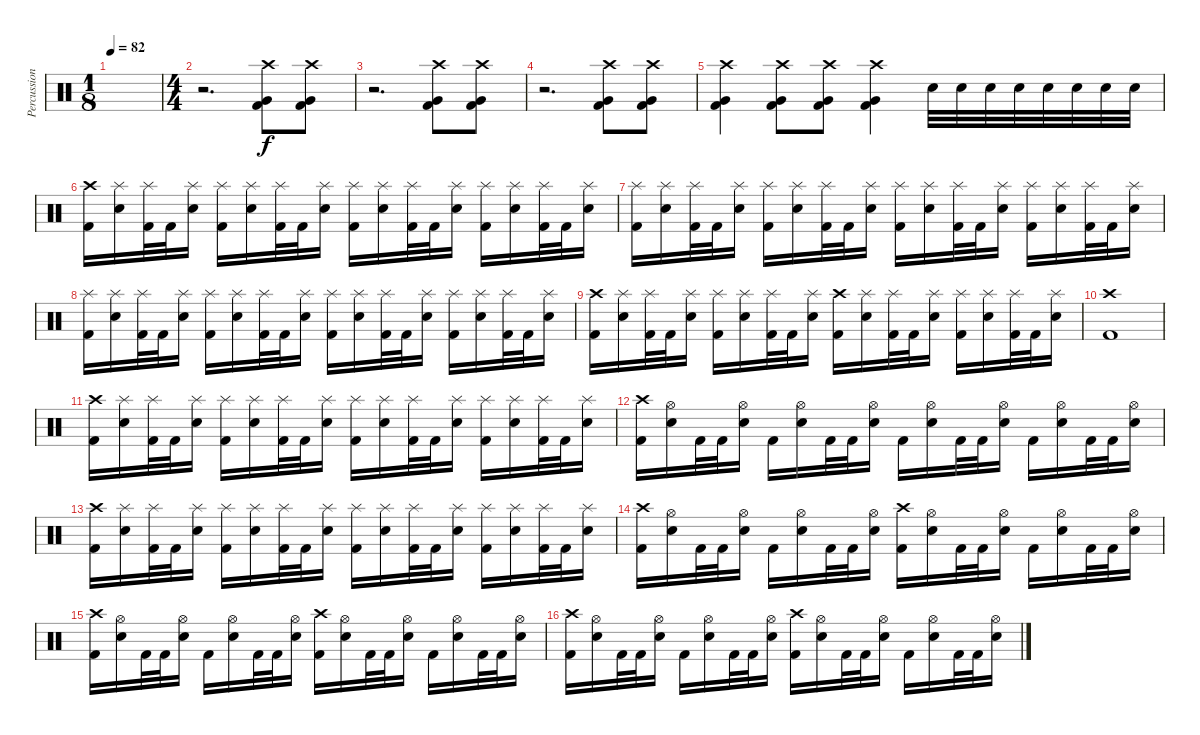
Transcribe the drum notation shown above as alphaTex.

\track ("Percussion" "Percussion") {instrument percussion}
\staff {score}
\articulation defaults
\ts (1 8)
\tempo 82
\clef neutral
\ks c
|
\ts (4 4)
\section ("" "")
r.2{d} ("Crash high (hit)" "Very Low Tom (hit)" "Kick (hit) 2").8 ("Crash high (hit)" "Very Low Tom (hit)" "Kick (hit) 2").8 |
r.2{d} ("Crash high (hit)" "Very Low Tom (hit)" "Kick (hit) 2").8 ("Crash high (hit)" "Very Low Tom (hit)" "Kick (hit) 2").8 |
r.2{d} ("Crash high (hit)" "Very Low Tom (hit)" "Kick (hit) 2").8 ("Crash high (hit)" "Very Low Tom (hit)" "Kick (hit) 2").8 |
("Crash high (hit)" "Very Low Tom (hit)" "Kick (hit) 2").4 ("Crash high (hit)" "Very Low Tom (hit)" "Kick (hit) 2").8 ("Crash high (hit)" "Very Low Tom (hit)" "Kick (hit) 2").8 ("Crash high (hit)" "Very Low Tom (hit)" "Kick (hit) 2").4 "Electric Snare (hit)".32 "Electric Snare (hit)".32 "Electric Snare (hit)".32 "Electric Snare (hit)".32 "Electric Snare (hit)".32 "Electric Snare (hit)".32 "Electric Snare (hit)".32 "Electric Snare (hit)".32 |
\section ("" "")
("Crash high (hit)" "Kick (hit) 2").16 ("Splash (hit)" "Electric Snare (hit)").16 ("Splash (hit)" "Kick (hit) 2").32 "Kick (hit) 2".32 ("Splash (hit)" "Electric Snare (hit)").16 ("Splash (hit)" "Kick (hit) 2").16 ("Splash (hit)" "Electric Snare (hit)").16 ("Splash (hit)" "Kick (hit) 2").32 "Kick (hit) 2".32 ("Splash (hit)" "Electric Snare (hit)").16 ("Splash (hit)" "Kick (hit) 2").16 ("Splash (hit)" "Electric Snare (hit)").16 ("Splash (hit)" "Kick (hit) 2").32 "Kick (hit) 2".32 ("Splash (hit)" "Electric Snare (hit)").16 ("Splash (hit)" "Kick (hit) 2").16 ("Splash (hit)" "Electric Snare (hit)").16 ("Splash (hit)" "Kick (hit) 2").32 "Kick (hit) 2".32 ("Splash (hit)" "Electric Snare (hit)").16 |
("Splash (hit)" "Kick (hit) 2").16 ("Splash (hit)" "Electric Snare (hit)").16 ("Splash (hit)" "Kick (hit) 2").32 "Kick (hit) 2".32 ("Splash (hit)" "Electric Snare (hit)").16 ("Splash (hit)" "Kick (hit) 2").16 ("Splash (hit)" "Electric Snare (hit)").16 ("Splash (hit)" "Kick (hit) 2").32 "Kick (hit) 2".32 ("Splash (hit)" "Electric Snare (hit)").16 ("Splash (hit)" "Kick (hit) 2").16 ("Splash (hit)" "Electric Snare (hit)").16 ("Splash (hit)" "Kick (hit) 2").32 "Kick (hit) 2".32 ("Splash (hit)" "Electric Snare (hit)").16 ("Splash (hit)" "Kick (hit) 2").16 ("Splash (hit)" "Electric Snare (hit)").16 ("Splash (hit)" "Kick (hit) 2").32 "Kick (hit) 2".32 ("Splash (hit)" "Electric Snare (hit)").16 |
("Splash (hit)" "Kick (hit) 2").16 ("Splash (hit)" "Electric Snare (hit)").16 ("Splash (hit)" "Kick (hit) 2").32 "Kick (hit) 2".32 ("Splash (hit)" "Electric Snare (hit)").16 ("Splash (hit)" "Kick (hit) 2").16 ("Splash (hit)" "Electric Snare (hit)").16 ("Splash (hit)" "Kick (hit) 2").32 "Kick (hit) 2".32 ("Splash (hit)" "Electric Snare (hit)").16 ("Splash (hit)" "Kick (hit) 2").16 ("Splash (hit)" "Electric Snare (hit)").16 ("Splash (hit)" "Kick (hit) 2").32 "Kick (hit) 2".32 ("Splash (hit)" "Electric Snare (hit)").16 ("Splash (hit)" "Kick (hit) 2").16 ("Splash (hit)" "Electric Snare (hit)").16 ("Splash (hit)" "Kick (hit) 2").32 "Kick (hit) 2".32 ("Splash (hit)" "Electric Snare (hit)").16 |
("Crash high (hit)" "Kick (hit) 2").16 ("Splash (hit)" "Electric Snare (hit)").16 ("Splash (hit)" "Kick (hit) 2").32 "Kick (hit) 2".32 ("Splash (hit)" "Electric Snare (hit)").16 ("Splash (hit)" "Kick (hit) 2").16 ("Splash (hit)" "Electric Snare (hit)").16 ("Splash (hit)" "Kick (hit) 2").32 "Kick (hit) 2".32 ("Splash (hit)" "Electric Snare (hit)").16 ("Crash high (hit)" "Kick (hit) 2").16 ("Splash (hit)" "Electric Snare (hit)").16 ("Splash (hit)" "Kick (hit) 2").32 "Kick (hit) 2".32 ("Splash (hit)" "Electric Snare (hit)").16 ("Splash (hit)" "Kick (hit) 2").16 ("Splash (hit)" "Electric Snare (hit)").16 ("Splash (hit)" "Kick (hit) 2").32 "Kick (hit) 2".32 ("Splash (hit)" "Electric Snare (hit)").16 |
\section ("" "")
("Crash high (hit)" "Kick (hit) 2").1 |
("Crash high (hit)" "Kick (hit) 2").16 ("Splash (hit)" "Electric Snare (hit)").16 ("Splash (hit)" "Kick (hit) 2").32 "Kick (hit) 2".32 ("Splash (hit)" "Electric Snare (hit)").16 ("Splash (hit)" "Kick (hit) 2").16 ("Splash (hit)" "Electric Snare (hit)").16 ("Splash (hit)" "Kick (hit) 2").32 "Kick (hit) 2".32 ("Splash (hit)" "Electric Snare (hit)").16 ("Splash (hit)" "Kick (hit) 2").16 ("Splash (hit)" "Electric Snare (hit)").16 ("Splash (hit)" "Kick (hit) 2").32 "Kick (hit) 2".32 ("Splash (hit)" "Electric Snare (hit)").16 ("Splash (hit)" "Kick (hit) 2").16 ("Splash (hit)" "Electric Snare (hit)").16 ("Splash (hit)" "Kick (hit) 2").32 "Kick (hit) 2".32 ("Splash (hit)" "Electric Snare (hit)").16 |
("Crash high (hit)" "Kick (hit) 2").16 ("Hi-Hat (open)" "Electric Snare (hit)").16 "Kick (hit) 2".32 "Kick (hit) 2".32 ("Hi-Hat (open)" "Electric Snare (hit)").16 "Kick (hit) 2".16 ("Hi-Hat (open)" "Electric Snare (hit)").16 "Kick (hit) 2".32 "Kick (hit) 2".32 ("Hi-Hat (open)" "Electric Snare (hit)").16 "Kick (hit) 2".16 ("Hi-Hat (open)" "Electric Snare (hit)").16 "Kick (hit) 2".32 "Kick (hit) 2".32 ("Hi-Hat (open)" "Electric Snare (hit)").16 "Kick (hit) 2".16 ("Hi-Hat (open)" "Electric Snare (hit)").16 "Kick (hit) 2".32 "Kick (hit) 2".32 ("Hi-Hat (open)" "Electric Snare (hit)").16 |
("Crash high (hit)" "Kick (hit) 2").16 ("Splash (hit)" "Electric Snare (hit)").16 ("Splash (hit)" "Kick (hit) 2").32 "Kick (hit) 2".32 ("Splash (hit)" "Electric Snare (hit)").16 ("Splash (hit)" "Kick (hit) 2").16 ("Splash (hit)" "Electric Snare (hit)").16 ("Splash (hit)" "Kick (hit) 2").32 "Kick (hit) 2".32 ("Splash (hit)" "Electric Snare (hit)").16 ("Splash (hit)" "Kick (hit) 2").16 ("Splash (hit)" "Electric Snare (hit)").16 ("Splash (hit)" "Kick (hit) 2").32 "Kick (hit) 2".32 ("Splash (hit)" "Electric Snare (hit)").16 ("Splash (hit)" "Kick (hit) 2").16 ("Splash (hit)" "Electric Snare (hit)").16 ("Splash (hit)" "Kick (hit) 2").32 "Kick (hit) 2".32 ("Splash (hit)" "Electric Snare (hit)").16 |
\section ("" "")
("Crash high (hit)" "Kick (hit) 2").16 ("Hi-Hat (open)" "Electric Snare (hit)").16 "Kick (hit) 2".32 "Kick (hit) 2".32 ("Hi-Hat (open)" "Electric Snare (hit)").16 "Kick (hit) 2".16 ("Hi-Hat (open)" "Electric Snare (hit)").16 "Kick (hit) 2".32 "Kick (hit) 2".32 ("Hi-Hat (open)" "Electric Snare (hit)").16 ("Crash high (hit)" "Kick (hit) 2").16 ("Hi-Hat (open)" "Electric Snare (hit)").16 "Kick (hit) 2".32 "Kick (hit) 2".32 ("Hi-Hat (open)" "Electric Snare (hit)").16 "Kick (hit) 2".16 ("Hi-Hat (open)" "Electric Snare (hit)").16 "Kick (hit) 2".32 "Kick (hit) 2".32 ("Hi-Hat (open)" "Electric Snare (hit)").16 |
("Crash high (hit)" "Kick (hit) 2").16 ("Hi-Hat (open)" "Electric Snare (hit)").16 "Kick (hit) 2".32 "Kick (hit) 2".32 ("Hi-Hat (open)" "Electric Snare (hit)").16 "Kick (hit) 2".16 ("Hi-Hat (open)" "Electric Snare (hit)").16 "Kick (hit) 2".32 "Kick (hit) 2".32 ("Hi-Hat (open)" "Electric Snare (hit)").16 ("Crash high (hit)" "Kick (hit) 2").16 ("Hi-Hat (open)" "Electric Snare (hit)").16 "Kick (hit) 2".32 "Kick (hit) 2".32 ("Hi-Hat (open)" "Electric Snare (hit)").16 "Kick (hit) 2".16 ("Hi-Hat (open)" "Electric Snare (hit)").16 "Kick (hit) 2".32 "Kick (hit) 2".32 ("Hi-Hat (open)" "Electric Snare (hit)").16 |
("Crash high (hit)" "Kick (hit) 2").16 ("Hi-Hat (open)" "Electric Snare (hit)").16 "Kick (hit) 2".32 "Kick (hit) 2".32 ("Hi-Hat (open)" "Electric Snare (hit)").16 "Kick (hit) 2".16 ("Hi-Hat (open)" "Electric Snare (hit)").16 "Kick (hit) 2".32 "Kick (hit) 2".32 ("Hi-Hat (open)" "Electric Snare (hit)").16 ("Crash high (hit)" "Kick (hit) 2").16 ("Hi-Hat (open)" "Electric Snare (hit)").16 "Kick (hit) 2".32 "Kick (hit) 2".32 ("Hi-Hat (open)" "Electric Snare (hit)").16 "Kick (hit) 2".16 ("Hi-Hat (open)" "Electric Snare (hit)").16 "Kick (hit) 2".32 "Kick (hit) 2".32 ("Hi-Hat (open)" "Electric Snare (hit)").16
